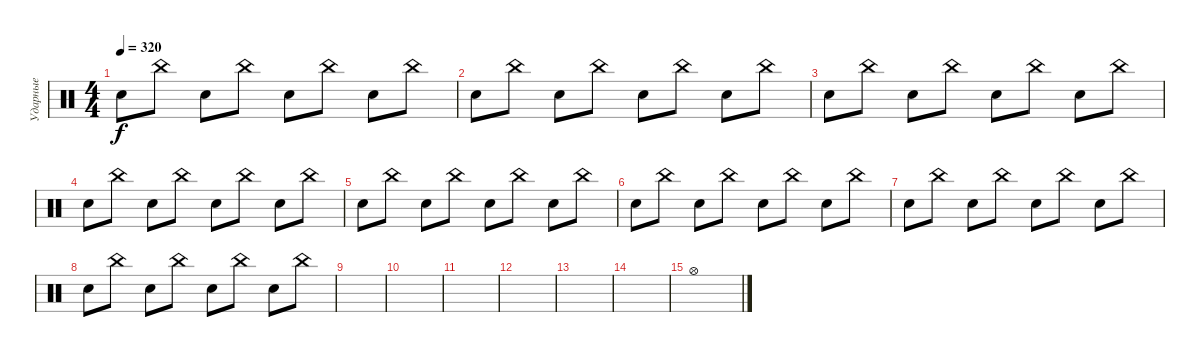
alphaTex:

\track ("Ударные" "Ударные") {instrument percussion}
\staff {score}
\articulation defaults
\ts (4 4)
\tempo 320
\clef neutral
\ks c "Electric Snare (hit)".8{dy f} "China (hit)".8 "Electric Snare (hit)".8 "China (hit)".8 "Electric Snare (hit)".8 "China (hit)".8 "Electric Snare (hit)".8 "China (hit)".8
|
"Electric Snare (hit)".8 "China (hit)".8 "Electric Snare (hit)".8 "China (hit)".8 "Electric Snare (hit)".8 "China (hit)".8 "Electric Snare (hit)".8 "China (hit)".8 |
"Electric Snare (hit)".8 "China (hit)".8 "Electric Snare (hit)".8 "China (hit)".8 "Electric Snare (hit)".8 "China (hit)".8 "Electric Snare (hit)".8 "China (hit)".8 |
"Electric Snare (hit)".8 "China (hit)".8 "Electric Snare (hit)".8 "China (hit)".8 "Electric Snare (hit)".8 "China (hit)".8 "Electric Snare (hit)".8 "China (hit)".8 |
"Electric Snare (hit)".8 "China (hit)".8 "Electric Snare (hit)".8 "China (hit)".8 "Electric Snare (hit)".8 "China (hit)".8 "Electric Snare (hit)".8 "China (hit)".8 |
"Electric Snare (hit)".8 "China (hit)".8 "Electric Snare (hit)".8 "China (hit)".8 "Electric Snare (hit)".8 "China (hit)".8 "Electric Snare (hit)".8 "China (hit)".8 |
"Electric Snare (hit)".8 "China (hit)".8 "Electric Snare (hit)".8 "China (hit)".8 "Electric Snare (hit)".8 "China (hit)".8 "Electric Snare (hit)".8 "China (hit)".8 |
"Electric Snare (hit)".8 "China (hit)".8 "Electric Snare (hit)".8 "China (hit)".8 "Electric Snare (hit)".8 "China (hit)".8 "Electric Snare (hit)".8 "China (hit)".8 |
|
|
|
|
|
|
"Hi-Hat (open)".1
